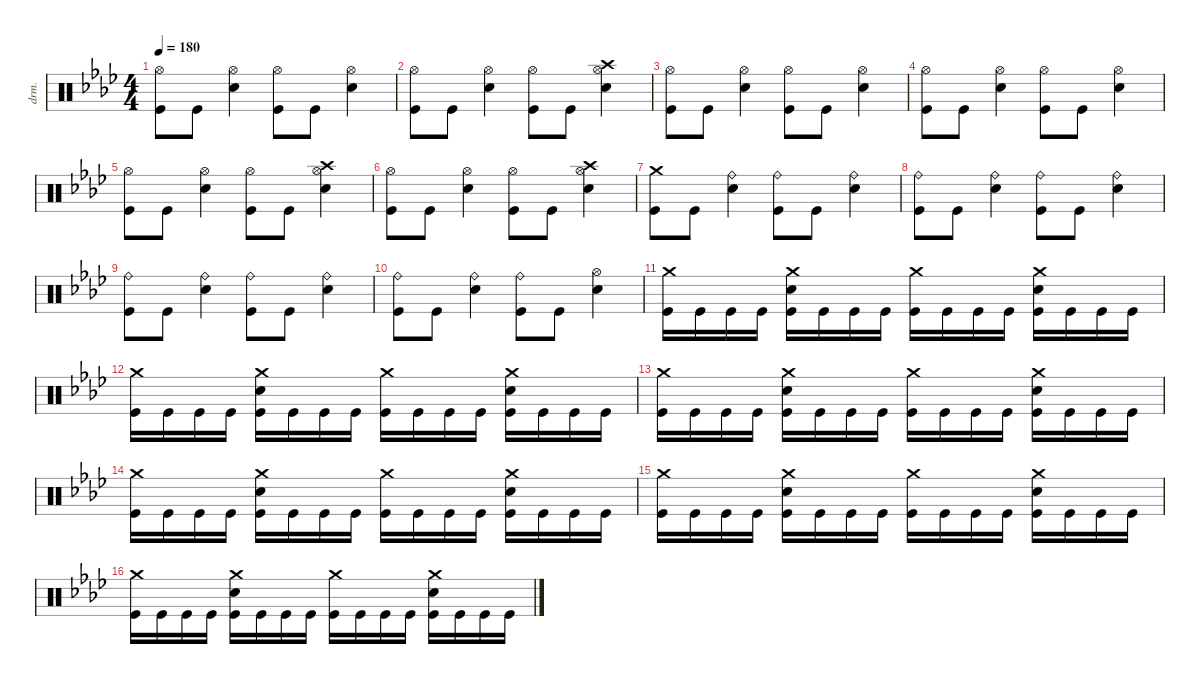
\defaultSystemsLayout 4
\hideDynamics
\bracketExtendMode nobrackets
\otherSystemsTrackNameOrientation horizontal
\track ("Percussion" "drm.") {instrument percussion}
\staff {score}
\articulation defaults
\ts (4 4)
\tempo 180
\clef neutral
\ks fminor
("Hi-Hat (open)"{acc forcenatural} "Kick (hit)"{acc forcenatural}).8{dy f beam Down} "Kick (hit)"{acc forcenatural}.8{beam Down} ("Hi-Hat (open)"{acc forcenatural} "Snare (hit) 2"{acc forcenatural}).4{beam Down} ("Hi-Hat (open)"{acc forcenatural} "Kick (hit)"{acc forcenatural}).8{beam Down} "Kick (hit)"{acc forcenatural}.8{beam Down} ("Hi-Hat (open)"{acc forcenatural} "Snare (hit) 2"{acc forcenatural}).4{beam Down} |
("Hi-Hat (open)"{acc forcenatural} "Kick (hit)"{acc forcenatural}).8{beam Down} "Kick (hit)"{acc forcenatural}.8{beam Down} ("Hi-Hat (open)"{acc forcenatural} "Snare (hit) 2"{acc forcenatural}).4{beam Down} ("Hi-Hat (open)"{acc forcenatural} "Kick (hit)"{acc forcenatural}).8{beam Down} "Kick (hit)"{acc forcenatural}.8{beam Down} ("Hi-Hat (open)"{acc forcenatural} "Crash high (hit)"{acc forcenatural} "Snare (hit) 2"{acc forcenatural}).4{beam Down} |
("Hi-Hat (open)"{acc forcenatural} "Kick (hit)"{acc forcenatural}).8{beam Down} "Kick (hit)"{acc forcenatural}.8{beam Down} ("Hi-Hat (open)"{acc forcenatural} "Snare (hit) 2"{acc forcenatural}).4{beam Down} ("Hi-Hat (open)"{acc forcenatural} "Kick (hit)"{acc forcenatural}).8{beam Down} "Kick (hit)"{acc forcenatural}.8{beam Down} ("Hi-Hat (open)"{acc forcenatural} "Snare (hit) 2"{acc forcenatural}).4{beam Down} |
("Hi-Hat (open)"{acc forcenatural} "Kick (hit)"{acc forcenatural}).8{beam Down} "Kick (hit)"{acc forcenatural}.8{beam Down} ("Hi-Hat (open)"{acc forcenatural} "Snare (hit) 2"{acc forcenatural}).4{beam Down} ("Hi-Hat (open)"{acc forcenatural} "Kick (hit)"{acc forcenatural}).8{beam Down} "Kick (hit)"{acc forcenatural}.8{beam Down} ("Hi-Hat (open)"{acc forcenatural} "Snare (hit) 2"{acc forcenatural}).4{beam Down} |
("Hi-Hat (open)"{acc forcenatural} "Kick (hit)"{acc forcenatural}).8{beam Down} "Kick (hit)"{acc forcenatural}.8{beam Down} ("Hi-Hat (open)"{acc forcenatural} "Snare (hit) 2"{acc forcenatural}).4{beam Down} ("Hi-Hat (open)"{acc forcenatural} "Kick (hit)"{acc forcenatural}).8{beam Down} "Kick (hit)"{acc forcenatural}.8{beam Down} ("Hi-Hat (open)"{acc forcenatural} "Crash high (hit)"{acc forcenatural} "Snare (hit) 2"{acc forcenatural}).4{beam Down} |
("Hi-Hat (open)"{acc forcenatural} "Kick (hit)"{acc forcenatural}).8{beam Down} "Kick (hit)"{acc forcenatural}.8{beam Down} ("Hi-Hat (open)"{acc forcenatural} "Snare (hit) 2"{acc forcenatural}).4{beam Down} ("Hi-Hat (open)"{acc forcenatural} "Kick (hit)"{acc forcenatural}).8{beam Down} "Kick (hit)"{acc forcenatural}.8{beam Down} ("Hi-Hat (open)"{acc forcenatural} "Crash high (hit)"{acc forcenatural} "Snare (hit) 2"{acc forcenatural}).4{beam Down} |
("Crash medium (hit)"{acc forcenatural} "Kick (hit)"{acc forcenatural}).8{beam Down} "Kick (hit)"{acc forcenatural}.8{beam Down} ("Ride (bell)"{acc forcenatural} "Snare (hit) 2"{acc forcenatural}).4{beam Down} ("Ride (bell)"{acc forcenatural} "Kick (hit)"{acc forcenatural}).8{beam Down} "Kick (hit)"{acc forcenatural}.8{beam Down} ("Ride (bell)"{acc forcenatural} "Snare (hit) 2"{acc forcenatural}).4{beam Down} |
("Ride (bell)"{acc forcenatural} "Kick (hit)"{acc forcenatural}).8{beam Down} "Kick (hit)"{acc forcenatural}.8{beam Down} ("Ride (bell)"{acc forcenatural} "Snare (hit) 2"{acc forcenatural}).4{beam Down} ("Ride (bell)"{acc forcenatural} "Kick (hit)"{acc forcenatural}).8{beam Down} "Kick (hit)"{acc forcenatural}.8{beam Down} ("Ride (bell)"{acc forcenatural} "Snare (hit) 2"{acc forcenatural}).4{beam Down} |
("Ride (bell)"{acc forcenatural} "Kick (hit)"{acc forcenatural}).8{beam Down} "Kick (hit)"{acc forcenatural}.8{beam Down} ("Ride (bell)"{acc forcenatural} "Snare (hit) 2"{acc forcenatural}).4{beam Down} ("Ride (bell)"{acc forcenatural} "Kick (hit)"{acc forcenatural}).8{beam Down} "Kick (hit)"{acc forcenatural}.8{beam Down} ("Ride (bell)"{acc forcenatural} "Snare (hit) 2"{acc forcenatural}).4{beam Down} |
("Ride (bell)"{acc forcenatural} "Kick (hit)"{acc forcenatural}).8{beam Down} "Kick (hit)"{acc forcenatural}.8{beam Down} ("Ride (bell)"{acc forcenatural} "Snare (hit) 2"{acc forcenatural}).4{beam Down} ("Ride (bell)"{acc forcenatural} "Kick (hit)"{acc forcenatural}).8{beam Down} "Kick (hit)"{acc forcenatural}.8{beam Down} ("Hi-Hat (open)"{acc forcenatural} "Snare (hit) 2"{acc forcenatural}).4{beam Down} |
("Crash medium (hit)"{acc forcenatural} "Kick (hit)"{acc forcenatural}).16{beam Down} "Kick (hit)"{acc forcenatural}.16{beam Down} "Kick (hit)"{acc forcenatural}.16{beam Down} "Kick (hit)"{acc forcenatural}.16{beam Down} ("Crash medium (hit)"{acc forcenatural} "Snare (hit) 2"{acc forcenatural} "Kick (hit)"{acc forcenatural}).16{beam Down} "Kick (hit)"{acc forcenatural}.16{beam Down} "Kick (hit)"{acc forcenatural}.16{beam Down} "Kick (hit)"{acc forcenatural}.16{beam Down} ("Crash medium (hit)"{acc forcenatural} "Kick (hit)"{acc forcenatural}).16{beam Down} "Kick (hit)"{acc forcenatural}.16{beam Down} "Kick (hit)"{acc forcenatural}.16{beam Down} "Kick (hit)"{acc forcenatural}.16{beam Down} ("Crash medium (hit)"{acc forcenatural} "Snare (hit) 2"{acc forcenatural} "Kick (hit)"{acc forcenatural}).16{beam Down} "Kick (hit)"{acc forcenatural}.16{beam Down} "Kick (hit)"{acc forcenatural}.16{beam Down} "Kick (hit)"{acc forcenatural}.16{beam Down} |
("Crash medium (hit)"{acc forcenatural} "Kick (hit)"{acc forcenatural}).16{beam Down} "Kick (hit)"{acc forcenatural}.16{beam Down} "Kick (hit)"{acc forcenatural}.16{beam Down} "Kick (hit)"{acc forcenatural}.16{beam Down} ("Crash medium (hit)"{acc forcenatural} "Snare (hit) 2"{acc forcenatural} "Kick (hit)"{acc forcenatural}).16{beam Down} "Kick (hit)"{acc forcenatural}.16{beam Down} "Kick (hit)"{acc forcenatural}.16{beam Down} "Kick (hit)"{acc forcenatural}.16{beam Down} ("Crash medium (hit)"{acc forcenatural} "Kick (hit)"{acc forcenatural}).16{beam Down} "Kick (hit)"{acc forcenatural}.16{beam Down} "Kick (hit)"{acc forcenatural}.16{beam Down} "Kick (hit)"{acc forcenatural}.16{beam Down} ("Crash medium (hit)"{acc forcenatural} "Snare (hit) 2"{acc forcenatural} "Kick (hit)"{acc forcenatural}).16{beam Down} "Kick (hit)"{acc forcenatural}.16{beam Down} "Kick (hit)"{acc forcenatural}.16{beam Down} "Kick (hit)"{acc forcenatural}.16{beam Down} |
("Crash medium (hit)"{acc forcenatural} "Kick (hit)"{acc forcenatural}).16{beam Down} "Kick (hit)"{acc forcenatural}.16{beam Down} "Kick (hit)"{acc forcenatural}.16{beam Down} "Kick (hit)"{acc forcenatural}.16{beam Down} ("Crash medium (hit)"{acc forcenatural} "Snare (hit) 2"{acc forcenatural} "Kick (hit)"{acc forcenatural}).16{beam Down} "Kick (hit)"{acc forcenatural}.16{beam Down} "Kick (hit)"{acc forcenatural}.16{beam Down} "Kick (hit)"{acc forcenatural}.16{beam Down} ("Crash medium (hit)"{acc forcenatural} "Kick (hit)"{acc forcenatural}).16{beam Down} "Kick (hit)"{acc forcenatural}.16{beam Down} "Kick (hit)"{acc forcenatural}.16{beam Down} "Kick (hit)"{acc forcenatural}.16{beam Down} ("Crash medium (hit)"{acc forcenatural} "Snare (hit) 2"{acc forcenatural} "Kick (hit)"{acc forcenatural}).16{beam Down} "Kick (hit)"{acc forcenatural}.16{beam Down} "Kick (hit)"{acc forcenatural}.16{beam Down} "Kick (hit)"{acc forcenatural}.16{beam Down} |
("Crash medium (hit)"{acc forcenatural} "Kick (hit)"{acc forcenatural}).16{beam Down} "Kick (hit)"{acc forcenatural}.16{beam Down} "Kick (hit)"{acc forcenatural}.16{beam Down} "Kick (hit)"{acc forcenatural}.16{beam Down} ("Crash medium (hit)"{acc forcenatural} "Snare (hit) 2"{acc forcenatural} "Kick (hit)"{acc forcenatural}).16{beam Down} "Kick (hit)"{acc forcenatural}.16{beam Down} "Kick (hit)"{acc forcenatural}.16{beam Down} "Kick (hit)"{acc forcenatural}.16{beam Down} ("Crash medium (hit)"{acc forcenatural} "Kick (hit)"{acc forcenatural}).16{beam Down} "Kick (hit)"{acc forcenatural}.16{beam Down} "Kick (hit)"{acc forcenatural}.16{beam Down} "Kick (hit)"{acc forcenatural}.16{beam Down} ("Crash medium (hit)"{acc forcenatural} "Snare (hit) 2"{acc forcenatural} "Kick (hit)"{acc forcenatural}).16{beam Down} "Kick (hit)"{acc forcenatural}.16{beam Down} "Kick (hit)"{acc forcenatural}.16{beam Down} "Kick (hit)"{acc forcenatural}.16{beam Down} |
("Crash medium (hit)"{acc forcenatural} "Kick (hit)"{acc forcenatural}).16{beam Down} "Kick (hit)"{acc forcenatural}.16{beam Down} "Kick (hit)"{acc forcenatural}.16{beam Down} "Kick (hit)"{acc forcenatural}.16{beam Down} ("Crash medium (hit)"{acc forcenatural} "Snare (hit) 2"{acc forcenatural} "Kick (hit)"{acc forcenatural}).16{beam Down} "Kick (hit)"{acc forcenatural}.16{beam Down} "Kick (hit)"{acc forcenatural}.16{beam Down} "Kick (hit)"{acc forcenatural}.16{beam Down} ("Crash medium (hit)"{acc forcenatural} "Kick (hit)"{acc forcenatural}).16{beam Down} "Kick (hit)"{acc forcenatural}.16{beam Down} "Kick (hit)"{acc forcenatural}.16{beam Down} "Kick (hit)"{acc forcenatural}.16{beam Down} ("Crash medium (hit)"{acc forcenatural} "Snare (hit) 2"{acc forcenatural} "Kick (hit)"{acc forcenatural}).16{beam Down} "Kick (hit)"{acc forcenatural}.16{beam Down} "Kick (hit)"{acc forcenatural}.16{beam Down} "Kick (hit)"{acc forcenatural}.16{beam Down} |
("Crash medium (hit)"{acc forcenatural} "Kick (hit)"{acc forcenatural}).16{beam Down} "Kick (hit)"{acc forcenatural}.16{beam Down} "Kick (hit)"{acc forcenatural}.16{beam Down} "Kick (hit)"{acc forcenatural}.16{beam Down} ("Crash medium (hit)"{acc forcenatural} "Snare (hit) 2"{acc forcenatural} "Kick (hit)"{acc forcenatural}).16{beam Down} "Kick (hit)"{acc forcenatural}.16{beam Down} "Kick (hit)"{acc forcenatural}.16{beam Down} "Kick (hit)"{acc forcenatural}.16{beam Down} ("Crash medium (hit)"{acc forcenatural} "Kick (hit)"{acc forcenatural}).16{beam Down} "Kick (hit)"{acc forcenatural}.16{beam Down} "Kick (hit)"{acc forcenatural}.16{beam Down} "Kick (hit)"{acc forcenatural}.16{beam Down} ("Crash medium (hit)"{acc forcenatural} "Snare (hit) 2"{acc forcenatural} "Kick (hit)"{acc forcenatural}).16{beam Down} "Kick (hit)"{acc forcenatural}.16{beam Down} "Kick (hit)"{acc forcenatural}.16{beam Down} "Kick (hit)"{acc forcenatural}.16{beam Down}
